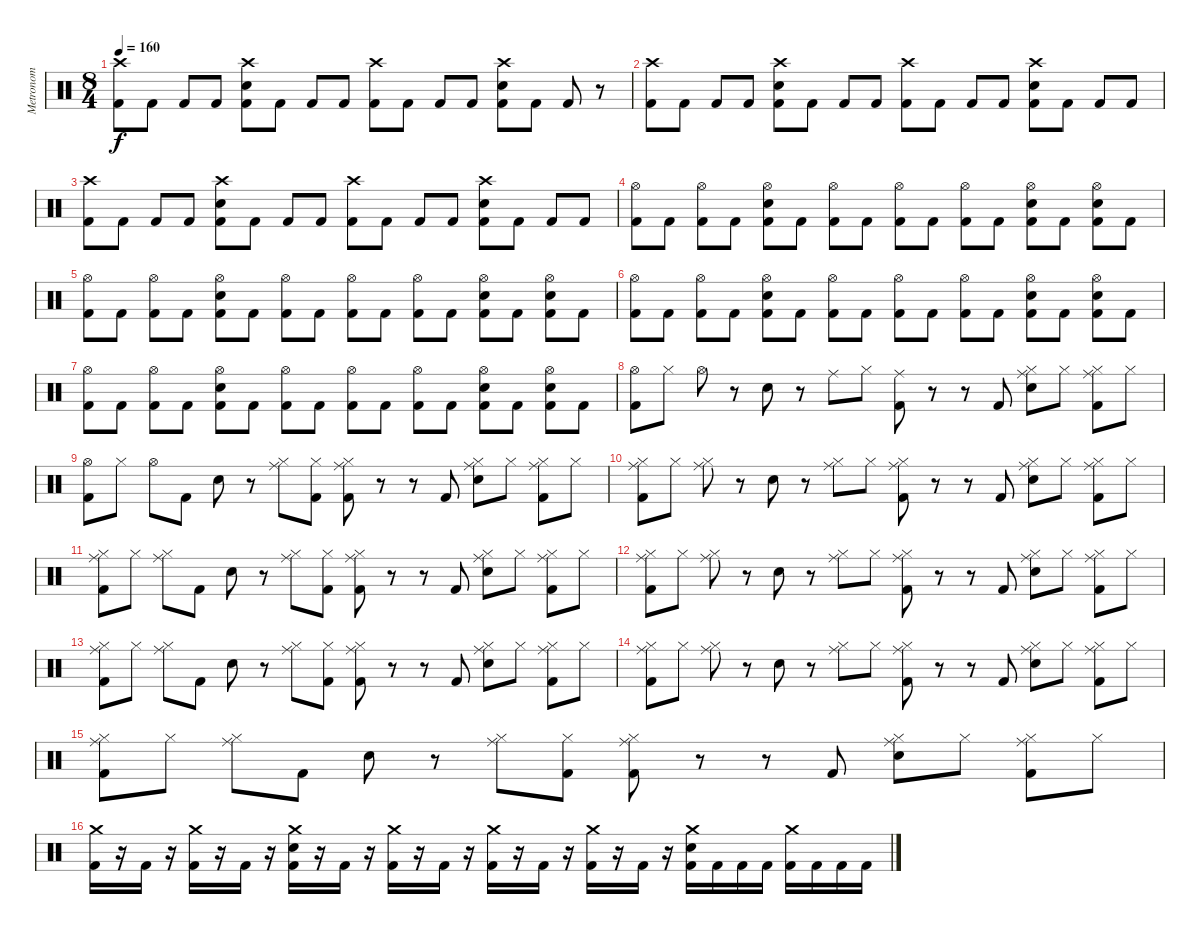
\track ("Metronom" "Metronom") {instrument percussion}
\staff
\articulation defaults
\ts (8 4)
\tempo 160
\clef neutral
\ks c
("Crash high (hit)" "Kick (hit) 2").8{dy f} "Kick (hit) 2".8 "Kick (hit) 2".8 "Kick (hit) 2".8 ("Crash high (hit)" "Electric Snare (hit)" "Kick (hit) 2").8 "Kick (hit) 2".8 "Kick (hit) 2".8 "Kick (hit) 2".8 ("Crash high (hit)" "Kick (hit) 2").8 "Kick (hit) 2".8 "Kick (hit) 2".8 "Kick (hit) 2".8 ("Crash high (hit)" "Electric Snare (hit)" "Kick (hit) 2").8 "Kick (hit) 2".8 "Kick (hit) 2".8 r.8 |
("Crash high (hit)" "Kick (hit) 2").8 "Kick (hit) 2".8 "Kick (hit) 2".8 "Kick (hit) 2".8 ("Crash high (hit)" "Electric Snare (hit)" "Kick (hit) 2").8 "Kick (hit) 2".8 "Kick (hit) 2".8 "Kick (hit) 2".8 ("Crash high (hit)" "Kick (hit) 2").8 "Kick (hit) 2".8 "Kick (hit) 2".8 "Kick (hit) 2".8 ("Crash high (hit)" "Electric Snare (hit)" "Kick (hit) 2").8 "Kick (hit) 2".8 "Kick (hit) 2".8 "Kick (hit) 2".8 |
("Crash high (hit)" "Kick (hit) 2").8 "Kick (hit) 2".8 "Kick (hit) 2".8 "Kick (hit) 2".8 ("Crash high (hit)" "Electric Snare (hit)" "Kick (hit) 2").8 "Kick (hit) 2".8 "Kick (hit) 2".8 "Kick (hit) 2".8 ("Crash high (hit)" "Kick (hit) 2").8 "Kick (hit) 2".8 "Kick (hit) 2".8 "Kick (hit) 2".8 ("Crash high (hit)" "Electric Snare (hit)" "Kick (hit) 2").8 "Kick (hit) 2".8 "Kick (hit) 2".8 "Kick (hit) 2".8 |
("Hi-Hat (open)" "Kick (hit) 2").8 "Kick (hit) 2".8 ("Hi-Hat (open)" "Kick (hit) 2").8 "Kick (hit) 2".8 ("Hi-Hat (open)" "Electric Snare (hit)" "Kick (hit) 2").8 "Kick (hit) 2".8 ("Hi-Hat (open)" "Kick (hit) 2").8 "Kick (hit) 2".8 ("Hi-Hat (open)" "Kick (hit) 2").8 "Kick (hit) 2".8 ("Hi-Hat (open)" "Kick (hit) 2").8 "Kick (hit) 2".8 ("Hi-Hat (open)" "Electric Snare (hit)" "Kick (hit) 2").8 "Kick (hit) 2".8 ("Hi-Hat (open)" "Electric Snare (hit)" "Kick (hit) 2").8 "Kick (hit) 2".8 |
("Hi-Hat (open)" "Kick (hit) 2").8 "Kick (hit) 2".8 ("Hi-Hat (open)" "Kick (hit) 2").8 "Kick (hit) 2".8 ("Hi-Hat (open)" "Electric Snare (hit)" "Kick (hit) 2").8 "Kick (hit) 2".8 ("Hi-Hat (open)" "Kick (hit) 2").8 "Kick (hit) 2".8 ("Hi-Hat (open)" "Kick (hit) 2").8 "Kick (hit) 2".8 ("Hi-Hat (open)" "Kick (hit) 2").8 "Kick (hit) 2".8 ("Hi-Hat (open)" "Electric Snare (hit)" "Kick (hit) 2").8 "Kick (hit) 2".8 ("Hi-Hat (open)" "Electric Snare (hit)" "Kick (hit) 2").8 "Kick (hit) 2".8 |
("Hi-Hat (open)" "Kick (hit) 2").8 "Kick (hit) 2".8 ("Hi-Hat (open)" "Kick (hit) 2").8 "Kick (hit) 2".8 ("Hi-Hat (open)" "Electric Snare (hit)" "Kick (hit) 2").8 "Kick (hit) 2".8 ("Hi-Hat (open)" "Kick (hit) 2").8 "Kick (hit) 2".8 ("Hi-Hat (open)" "Kick (hit) 2").8 "Kick (hit) 2".8 ("Hi-Hat (open)" "Kick (hit) 2").8 "Kick (hit) 2".8 ("Hi-Hat (open)" "Electric Snare (hit)" "Kick (hit) 2").8 "Kick (hit) 2".8 ("Hi-Hat (open)" "Electric Snare (hit)" "Kick (hit) 2").8 "Kick (hit) 2".8 |
("Hi-Hat (open)" "Kick (hit) 2").8 "Kick (hit) 2".8 ("Hi-Hat (open)" "Kick (hit) 2").8 "Kick (hit) 2".8 ("Hi-Hat (open)" "Electric Snare (hit)" "Kick (hit) 2").8 "Kick (hit) 2".8 ("Hi-Hat (open)" "Kick (hit) 2").8 "Kick (hit) 2".8 ("Hi-Hat (open)" "Kick (hit) 2").8 "Kick (hit) 2".8 ("Hi-Hat (open)" "Kick (hit) 2").8 "Kick (hit) 2".8 ("Hi-Hat (open)" "Electric Snare (hit)" "Kick (hit) 2").8 "Kick (hit) 2".8 ("Hi-Hat (open)" "Electric Snare (hit)" "Kick (hit) 2").8 "Kick (hit) 2".8 |
("Hi-Hat (open)" "Kick (hit) 2").8 "Hi-Hat (closed)".8 "Hi-Hat (open)".8 r.8 "Electric Snare (hit)".8 r.8 "Ride (middle)".8 "Hi-Hat (closed)".8 ("Ride (middle)" "Kick (hit) 2").8 r.8 r.8 "Kick (hit) 2".8 ("Ride (middle)" "Hi-Hat (closed)" "Electric Snare (hit)").8 "Hi-Hat (closed)".8 ("Ride (middle)" "Hi-Hat (closed)" "Kick (hit) 2").8 "Hi-Hat (closed)".8 |
("Hi-Hat (open)" "Kick (hit) 2").8 "Hi-Hat (closed)".8 "Hi-Hat (open)".8 "Kick (hit) 2".8 "Electric Snare (hit)".8 r.8 ("Ride (middle)" "Hi-Hat (closed)").8 ("Hi-Hat (closed)" "Kick (hit) 2").8 ("Ride (middle)" "Hi-Hat (closed)" "Kick (hit) 2").8 r.8 r.8 "Kick (hit) 2".8 ("Ride (middle)" "Hi-Hat (closed)" "Electric Snare (hit)").8 "Hi-Hat (closed)".8 ("Ride (middle)" "Hi-Hat (closed)" "Kick (hit) 2").8 "Hi-Hat (closed)".8 |
("Ride (middle)" "Hi-Hat (closed)" "Kick (hit) 2").8 "Hi-Hat (closed)".8 ("Ride (middle)" "Hi-Hat (closed)").8 r.8 "Electric Snare (hit)".8 r.8 ("Ride (middle)" "Hi-Hat (closed)").8 "Hi-Hat (closed)".8 ("Ride (middle)" "Hi-Hat (closed)" "Kick (hit) 2").8 r.8 r.8 "Kick (hit) 2".8 ("Ride (middle)" "Hi-Hat (closed)" "Electric Snare (hit)").8 "Hi-Hat (closed)".8 ("Ride (middle)" "Hi-Hat (closed)" "Kick (hit) 2").8 "Hi-Hat (closed)".8 |
("Ride (middle)" "Hi-Hat (closed)" "Kick (hit) 2").8 "Hi-Hat (closed)".8 ("Ride (middle)" "Hi-Hat (closed)").8 "Kick (hit) 2".8 "Electric Snare (hit)".8 r.8 ("Ride (middle)" "Hi-Hat (closed)").8 ("Hi-Hat (closed)" "Kick (hit) 2").8 ("Ride (middle)" "Hi-Hat (closed)" "Kick (hit) 2").8 r.8 r.8 "Kick (hit) 2".8 ("Ride (middle)" "Hi-Hat (closed)" "Electric Snare (hit)").8 "Hi-Hat (closed)".8 ("Ride (middle)" "Hi-Hat (closed)" "Kick (hit) 2").8 "Hi-Hat (closed)".8 |
("Ride (middle)" "Hi-Hat (closed)" "Kick (hit) 2").8 "Hi-Hat (closed)".8 ("Ride (middle)" "Hi-Hat (closed)").8 r.8 "Electric Snare (hit)".8 r.8 ("Ride (middle)" "Hi-Hat (closed)").8 "Hi-Hat (closed)".8 ("Ride (middle)" "Hi-Hat (closed)" "Kick (hit) 2").8 r.8 r.8 "Kick (hit) 2".8 ("Ride (middle)" "Hi-Hat (closed)" "Electric Snare (hit)").8 "Hi-Hat (closed)".8 ("Ride (middle)" "Hi-Hat (closed)" "Kick (hit) 2").8 "Hi-Hat (closed)".8 |
("Ride (middle)" "Hi-Hat (closed)" "Kick (hit) 2").8 "Hi-Hat (closed)".8 ("Ride (middle)" "Hi-Hat (closed)").8 "Kick (hit) 2".8 "Electric Snare (hit)".8 r.8 ("Ride (middle)" "Hi-Hat (closed)").8 ("Hi-Hat (closed)" "Kick (hit) 2").8 ("Ride (middle)" "Hi-Hat (closed)" "Kick (hit) 2").8 r.8 r.8 "Kick (hit) 2".8 ("Ride (middle)" "Hi-Hat (closed)" "Electric Snare (hit)").8 "Hi-Hat (closed)".8 ("Ride (middle)" "Hi-Hat (closed)" "Kick (hit) 2").8 "Hi-Hat (closed)".8 |
("Ride (middle)" "Hi-Hat (closed)" "Kick (hit) 2").8 "Hi-Hat (closed)".8 ("Ride (middle)" "Hi-Hat (closed)").8 r.8 "Electric Snare (hit)".8 r.8 ("Ride (middle)" "Hi-Hat (closed)").8 "Hi-Hat (closed)".8 ("Ride (middle)" "Hi-Hat (closed)" "Kick (hit) 2").8 r.8 r.8 "Kick (hit) 2".8 ("Ride (middle)" "Hi-Hat (closed)" "Electric Snare (hit)").8 "Hi-Hat (closed)".8 ("Ride (middle)" "Hi-Hat (closed)" "Kick (hit) 2").8 "Hi-Hat (closed)".8 |
("Ride (middle)" "Hi-Hat (closed)" "Kick (hit) 2").8 "Hi-Hat (closed)".8 ("Ride (middle)" "Hi-Hat (closed)").8 "Kick (hit) 2".8 "Electric Snare (hit)".8 r.8 ("Ride (middle)" "Hi-Hat (closed)").8 ("Hi-Hat (closed)" "Kick (hit) 2").8 ("Ride (middle)" "Hi-Hat (closed)" "Kick (hit) 2").8 r.8 r.8 "Kick (hit) 2".8 ("Ride (middle)" "Hi-Hat (closed)" "Electric Snare (hit)").8 "Hi-Hat (closed)".8 ("Ride (middle)" "Hi-Hat (closed)" "Kick (hit) 2").8 "Hi-Hat (closed)".8 |
("Crash medium (hit)" "Kick (hit) 2").16 r.16 "Kick (hit) 2".16 r.16 ("Crash medium (hit)" "Kick (hit) 2").16 r.16 "Kick (hit) 2".16 r.16 ("Crash medium (hit)" "Electric Snare (hit)" "Kick (hit) 2").16 r.16 "Kick (hit) 2".16 r.16 ("Crash medium (hit)" "Kick (hit) 2").16 r.16 "Kick (hit) 2".16 r.16 ("Crash medium (hit)" "Kick (hit) 2").16 r.16 "Kick (hit) 2".16 r.16 ("Crash medium (hit)" "Kick (hit) 2").16 r.16 "Kick (hit) 2".16 r.16 ("Crash medium (hit)" "Electric Snare (hit)" "Kick (hit) 2").16 "Kick (hit) 2".16 "Kick (hit) 2".16 "Kick (hit) 2".16 ("Crash medium (hit)" "Kick (hit) 2").16 "Kick (hit) 2".16 "Kick (hit) 2".16 "Kick (hit) 2".16
